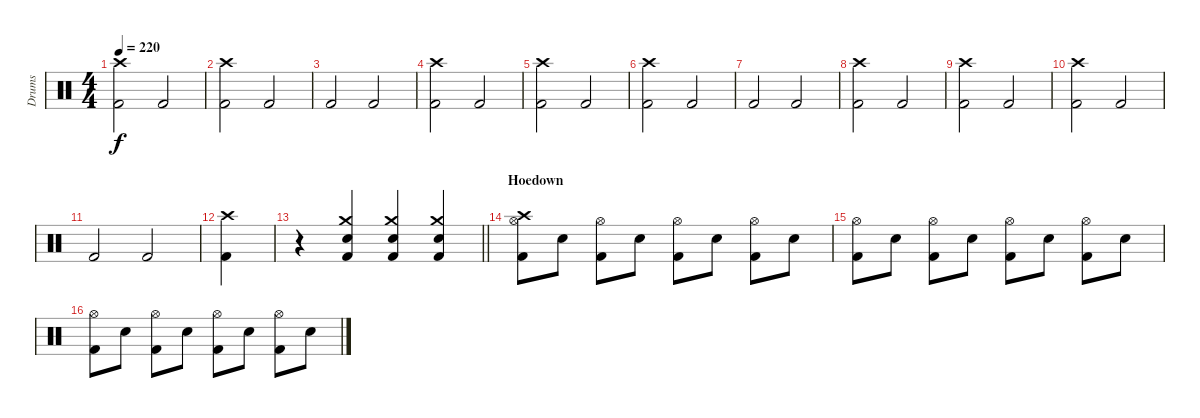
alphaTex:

\track ("Drums" "Drums") {instrument percussion}
\staff {score}
\articulation defaults
\ts (4 4)
\tempo 220
\clef neutral
\ks c
("Crash high (hit)" "Kick (hit) 2").2{dy f} "Kick (hit) 2".2 |
("Crash high (hit)" "Kick (hit) 2").2 "Kick (hit) 2".2 |
"Kick (hit) 2".2 "Kick (hit) 2".2 |
("Crash high (hit)" "Kick (hit) 2").2 "Kick (hit) 2".2 |
("Crash high (hit)" "Kick (hit) 2").2 "Kick (hit) 2".2 |
("Crash high (hit)" "Kick (hit) 2").2 "Kick (hit) 2".2 |
"Kick (hit) 2".2 "Kick (hit) 2".2 |
("Crash high (hit)" "Kick (hit) 2").2 "Kick (hit) 2".2 |
("Crash high (hit)" "Kick (hit) 2").2 "Kick (hit) 2".2 |
("Crash high (hit)" "Kick (hit) 2").2 "Kick (hit) 2".2 |
"Kick (hit) 2".2 "Kick (hit) 2".2 |
("Crash high (hit)" "Kick (hit) 2").4 |
\barLineRight lightlight
r.4 ("Crash medium (hit)" "Snare (hit) 2" "Kick (hit) 2").4 ("Crash medium (hit)" "Snare (hit) 2" "Kick (hit) 2").4 ("Crash medium (hit)" "Snare (hit) 2" "Kick (hit) 2").4 |
\section ("" "Hoedown")
("Crash high (hit)" "Hi-Hat (open)" "Kick (hit) 2").8 "Snare (hit) 2".8 ("Hi-Hat (open)" "Kick (hit) 2").8 "Snare (hit) 2".8 ("Hi-Hat (open)" "Kick (hit) 2").8 "Snare (hit) 2".8 ("Hi-Hat (open)" "Kick (hit) 2").8 "Snare (hit) 2".8 |
("Hi-Hat (open)" "Kick (hit) 2").8 "Snare (hit) 2".8 ("Hi-Hat (open)" "Kick (hit) 2").8 "Snare (hit) 2".8 ("Hi-Hat (open)" "Kick (hit) 2").8 "Snare (hit) 2".8 ("Hi-Hat (open)" "Kick (hit) 2").8 "Snare (hit) 2".8 |
("Hi-Hat (open)" "Kick (hit) 2").8 "Snare (hit) 2".8 ("Hi-Hat (open)" "Kick (hit) 2").8 "Snare (hit) 2".8 ("Hi-Hat (open)" "Kick (hit) 2").8 "Snare (hit) 2".8 ("Hi-Hat (open)" "Kick (hit) 2").8 "Snare (hit) 2".8
